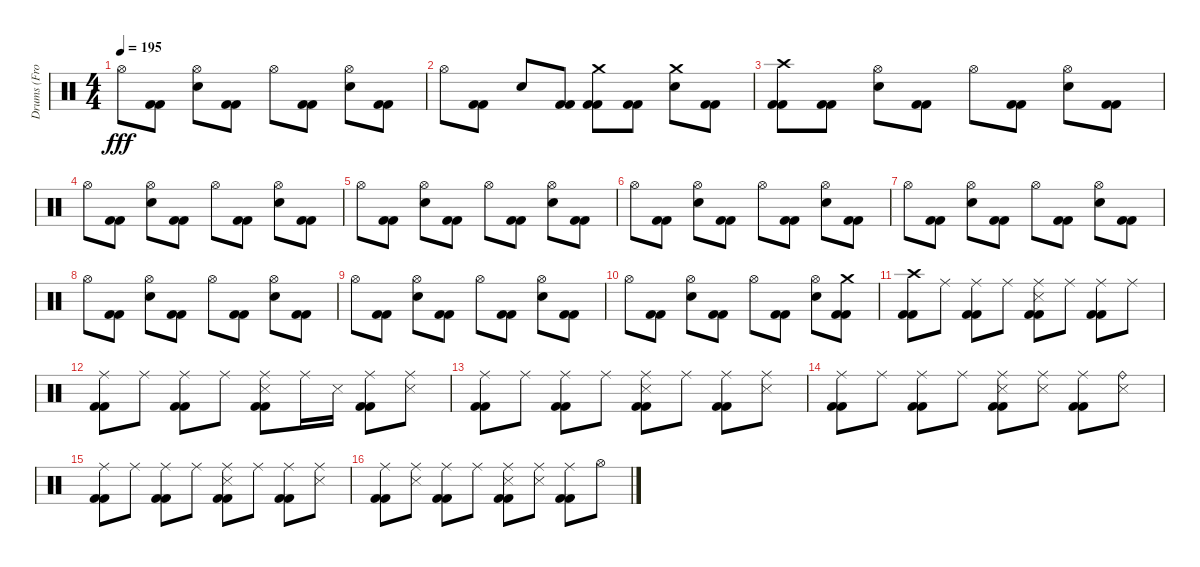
\track ("Drums (From Other GP)" "Drums (Fro") {instrument percussion}
\staff {score}
\articulation defaults
\ts (4 4)
\tempo 195
\clef neutral
\ks c "Hi-Hat (open)".8{dy fff}
("Kick (hit) 2" "Kick (hit) 2").8 ("Hi-Hat (open)" "Electric Snare (hit)").8 ("Kick (hit) 2" "Kick (hit) 2").8 "Hi-Hat (open)".8 ("Kick (hit) 2" "Kick (hit) 2").8 ("Hi-Hat (open)" "Electric Snare (hit)").8 ("Kick (hit) 2" "Kick (hit) 2").8 |
"Hi-Hat (open)".8 ("Kick (hit) 2" "Kick (hit) 2").8 "Electric Snare (hit)".8 ("Kick (hit) 2" "Kick (hit) 2").8 ("Crash medium (hit)" "Kick (hit) 2" "Kick (hit) 2").8 ("Kick (hit) 2" "Kick (hit) 2").8 ("Crash medium (hit)" "Electric Snare (hit)").8 ("Kick (hit) 2" "Kick (hit) 2").8 |
("Crash high (hit)" "Kick (hit) 2" "Kick (hit) 2").8 ("Kick (hit) 2" "Kick (hit) 2").8 ("Hi-Hat (open)" "Electric Snare (hit)").8 ("Kick (hit) 2" "Kick (hit) 2").8 "Hi-Hat (open)".8 ("Kick (hit) 2" "Kick (hit) 2").8 ("Hi-Hat (open)" "Electric Snare (hit)").8 ("Kick (hit) 2" "Kick (hit) 2").8 |
"Hi-Hat (open)".8 ("Kick (hit) 2" "Kick (hit) 2").8 ("Hi-Hat (open)" "Electric Snare (hit)").8 ("Kick (hit) 2" "Kick (hit) 2").8 "Hi-Hat (open)".8 ("Kick (hit) 2" "Kick (hit) 2").8 ("Hi-Hat (open)" "Electric Snare (hit)").8 ("Kick (hit) 2" "Kick (hit) 2").8 |
"Hi-Hat (open)".8 ("Kick (hit) 2" "Kick (hit) 2").8 ("Hi-Hat (open)" "Electric Snare (hit)").8 ("Kick (hit) 2" "Kick (hit) 2").8 "Hi-Hat (open)".8 ("Kick (hit) 2" "Kick (hit) 2").8 ("Hi-Hat (open)" "Electric Snare (hit)").8 ("Kick (hit) 2" "Kick (hit) 2").8 |
"Hi-Hat (open)".8 ("Kick (hit) 2" "Kick (hit) 2").8 ("Hi-Hat (open)" "Electric Snare (hit)").8 ("Kick (hit) 2" "Kick (hit) 2").8 "Hi-Hat (open)".8 ("Kick (hit) 2" "Kick (hit) 2").8 ("Hi-Hat (open)" "Electric Snare (hit)").8 ("Kick (hit) 2" "Kick (hit) 2").8 |
"Hi-Hat (open)".8 ("Kick (hit) 2" "Kick (hit) 2").8 ("Hi-Hat (open)" "Electric Snare (hit)").8 ("Kick (hit) 2" "Kick (hit) 2").8 "Hi-Hat (open)".8 ("Kick (hit) 2" "Kick (hit) 2").8 ("Hi-Hat (open)" "Electric Snare (hit)").8 ("Kick (hit) 2" "Kick (hit) 2").8 |
"Hi-Hat (open)".8 ("Kick (hit) 2" "Kick (hit) 2").8 ("Hi-Hat (open)" "Electric Snare (hit)").8 ("Kick (hit) 2" "Kick (hit) 2").8 "Hi-Hat (open)".8 ("Kick (hit) 2" "Kick (hit) 2").8 ("Hi-Hat (open)" "Electric Snare (hit)").8 ("Kick (hit) 2" "Kick (hit) 2").8 |
"Hi-Hat (open)".8 ("Kick (hit) 2" "Kick (hit) 2").8 ("Hi-Hat (open)" "Electric Snare (hit)").8 ("Kick (hit) 2" "Kick (hit) 2").8 "Hi-Hat (open)".8 ("Kick (hit) 2" "Kick (hit) 2").8 ("Hi-Hat (open)" "Electric Snare (hit)").8 ("Kick (hit) 2" "Kick (hit) 2").8 |
"Hi-Hat (open)".8 ("Kick (hit) 2" "Kick (hit) 2").8 ("Hi-Hat (open)" "Electric Snare (hit)").8 ("Kick (hit) 2" "Kick (hit) 2").8 "Hi-Hat (open)".8 ("Kick (hit) 2" "Kick (hit) 2").8 ("Hi-Hat (open)" "Electric Snare (hit)").8 ("Crash medium (hit)" "Kick (hit) 2" "Kick (hit) 2").8 |
("Crash high (hit)" "Kick (hit) 2" "Kick (hit) 2").8 "Ride (middle)".8 ("Ride (middle)" "Kick (hit) 2" "Kick (hit) 2").8 "Ride (middle)".8 ("Ride (middle)" "Snare (side stick) 3" "Kick (hit) 2" "Kick (hit) 2").8 "Ride (middle)".8 ("Ride (middle)" "Kick (hit) 2" "Kick (hit) 2").8 "Ride (middle)".8 |
("Ride (middle)" "Kick (hit) 2" "Kick (hit) 2").8 "Ride (middle)".8 ("Ride (middle)" "Kick (hit) 2" "Kick (hit) 2").8 "Ride (middle)".8 ("Ride (middle)" "Snare (side stick) 3" "Kick (hit) 2" "Kick (hit) 2").8 "Ride (middle)".16 "Snare (side stick) 3".16 ("Ride (middle)" "Kick (hit) 2" "Kick (hit) 2").8 ("Ride (middle)" "Snare (side stick) 3").8 |
("Ride (middle)" "Kick (hit) 2" "Kick (hit) 2").8 "Ride (middle)".8 ("Ride (middle)" "Kick (hit) 2" "Kick (hit) 2").8 "Ride (middle)".8 ("Ride (middle)" "Snare (side stick) 3" "Kick (hit) 2" "Kick (hit) 2").8 "Ride (middle)".8 ("Ride (middle)" "Kick (hit) 2" "Kick (hit) 2").8 ("Ride (middle)" "Snare (side stick) 3").8 |
("Ride (middle)" "Kick (hit) 2" "Kick (hit) 2").8 "Ride (middle)".8 ("Ride (middle)" "Kick (hit) 2" "Kick (hit) 2").8 "Ride (middle)".8 ("Ride (middle)" "Snare (side stick) 3" "Kick (hit) 2" "Kick (hit) 2").8 ("Ride (middle)" "Snare (side stick) 3").8 ("Ride (middle)" "Kick (hit) 2" "Kick (hit) 2").8 ("Ride (bell)" "Snare (side stick) 3").8 |
("Ride (middle)" "Kick (hit) 2" "Kick (hit) 2").8 "Ride (middle)".8 ("Ride (middle)" "Kick (hit) 2" "Kick (hit) 2").8 "Ride (middle)".8 ("Ride (middle)" "Snare (side stick) 3" "Kick (hit) 2" "Kick (hit) 2").8 "Ride (middle)".8 ("Ride (middle)" "Kick (hit) 2" "Kick (hit) 2").8 ("Ride (middle)" "Snare (side stick) 3").8 |
("Ride (middle)" "Kick (hit) 2" "Kick (hit) 2").8 ("Ride (middle)" "Snare (side stick) 3").8 ("Ride (middle)" "Kick (hit) 2" "Kick (hit) 2").8 "Ride (middle)".8 ("Ride (middle)" "Snare (side stick) 3" "Kick (hit) 2" "Kick (hit) 2").8 ("Ride (middle)" "Snare (side stick) 3").8 ("Ride (middle)" "Kick (hit) 2" "Kick (hit) 2").8 "Hi-Hat (open)".8
